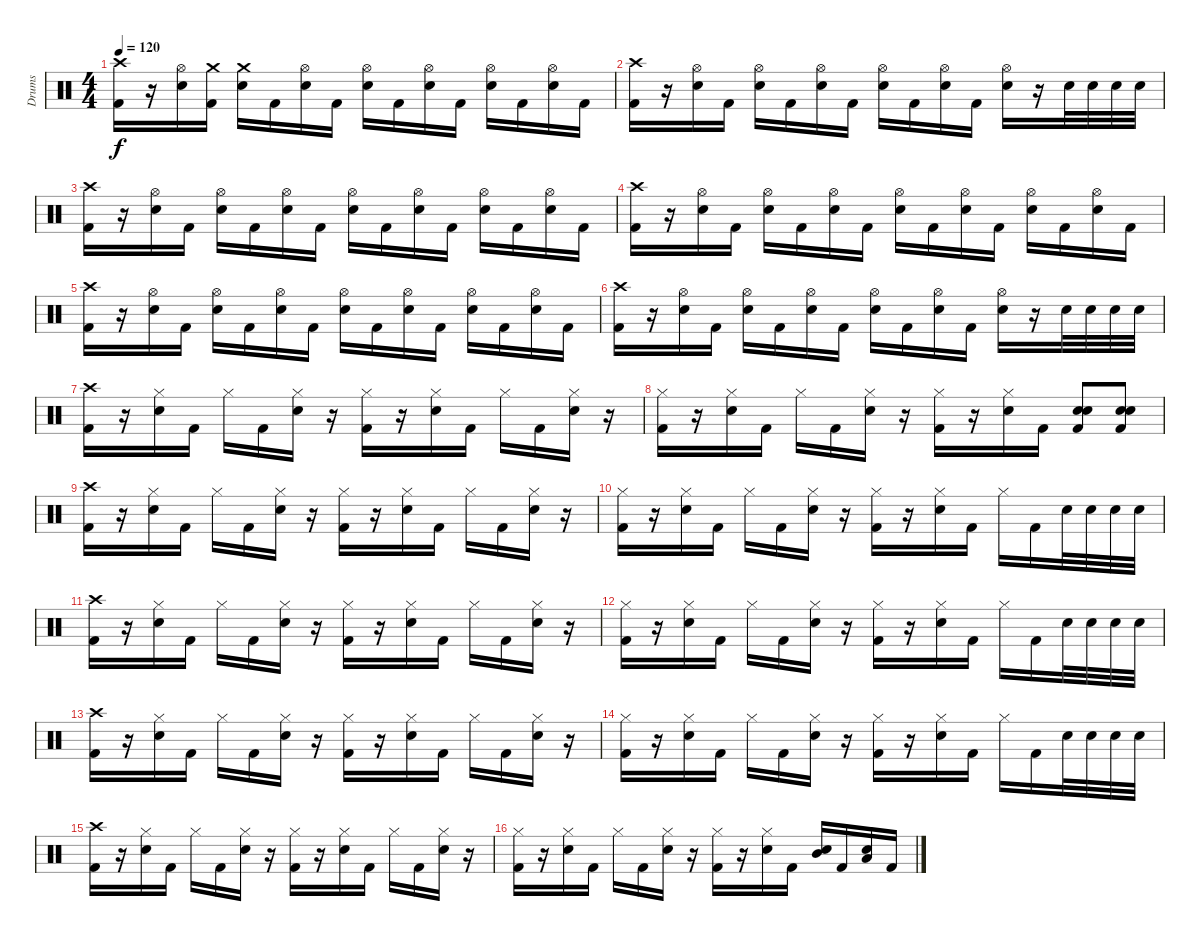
\track ("Drums" "Drums") {instrument percussion}
\staff {score}
\articulation defaults
\ts (4 4)
\tempo 120
\clef neutral
\ks c
("Crash high (hit)" "Kick (hit) 2").16{dy f} r.16 ("Hi-Hat (open)" "Snare (hit) 2").16 ("Crash medium (hit)" "Kick (hit) 2").16 ("Crash medium (hit)" "Snare (hit) 2").16 "Kick (hit) 2".16 ("Hi-Hat (open)" "Snare (hit) 2").16 "Kick (hit) 2".16 ("Hi-Hat (open)" "Snare (hit) 2").16 "Kick (hit) 2".16 ("Hi-Hat (open)" "Snare (hit) 2").16 "Kick (hit) 2".16 ("Hi-Hat (open)" "Snare (hit) 2").16 "Kick (hit) 2".16 ("Hi-Hat (open)" "Snare (hit) 2").16 "Kick (hit) 2".16 |
("Crash high (hit)" "Kick (hit) 2").16 r.16 ("Hi-Hat (open)" "Snare (hit) 2").16 "Kick (hit) 2".16 ("Hi-Hat (open)" "Snare (hit) 2").16 "Kick (hit) 2".16 ("Hi-Hat (open)" "Snare (hit) 2").16 "Kick (hit) 2".16 ("Hi-Hat (open)" "Snare (hit) 2").16 "Kick (hit) 2".16 ("Hi-Hat (open)" "Snare (hit) 2").16 "Kick (hit) 2".16 ("Hi-Hat (open)" "Snare (hit) 2").16 r.16 "Snare (hit) 2".32 "Snare (hit) 2".32 "Snare (hit) 2".32 "Snare (hit) 2".32 |
("Crash high (hit)" "Kick (hit) 2").16 r.16 ("Hi-Hat (open)" "Snare (hit) 2").16 "Kick (hit) 2".16 ("Hi-Hat (open)" "Snare (hit) 2").16 "Kick (hit) 2".16 ("Hi-Hat (open)" "Snare (hit) 2").16 "Kick (hit) 2".16 ("Hi-Hat (open)" "Snare (hit) 2").16 "Kick (hit) 2".16 ("Hi-Hat (open)" "Snare (hit) 2").16 "Kick (hit) 2".16 ("Hi-Hat (open)" "Snare (hit) 2").16 "Kick (hit) 2".16 ("Hi-Hat (open)" "Snare (hit) 2").16 "Kick (hit) 2".16 |
("Crash high (hit)" "Kick (hit) 2").16 r.16 ("Hi-Hat (open)" "Snare (hit) 2").16 "Kick (hit) 2".16 ("Hi-Hat (open)" "Snare (hit) 2").16 "Kick (hit) 2".16 ("Hi-Hat (open)" "Snare (hit) 2").16 "Kick (hit) 2".16 ("Hi-Hat (open)" "Snare (hit) 2").16 "Kick (hit) 2".16 ("Hi-Hat (open)" "Snare (hit) 2").16 "Kick (hit) 2".16 ("Hi-Hat (open)" "Snare (hit) 2").16 "Kick (hit) 2".16 ("Hi-Hat (open)" "Snare (hit) 2").16 "Kick (hit) 2".16 |
("Crash high (hit)" "Kick (hit) 2").16 r.16 ("Hi-Hat (open)" "Snare (hit) 2").16 "Kick (hit) 2".16 ("Hi-Hat (open)" "Snare (hit) 2").16 "Kick (hit) 2".16 ("Hi-Hat (open)" "Snare (hit) 2").16 "Kick (hit) 2".16 ("Hi-Hat (open)" "Snare (hit) 2").16 "Kick (hit) 2".16 ("Hi-Hat (open)" "Snare (hit) 2").16 "Kick (hit) 2".16 ("Hi-Hat (open)" "Snare (hit) 2").16 "Kick (hit) 2".16 ("Hi-Hat (open)" "Snare (hit) 2").16 "Kick (hit) 2".16 |
("Crash high (hit)" "Kick (hit) 2").16 r.16 ("Hi-Hat (open)" "Snare (hit) 2").16 "Kick (hit) 2".16 ("Hi-Hat (open)" "Snare (hit) 2").16 "Kick (hit) 2".16 ("Hi-Hat (open)" "Snare (hit) 2").16 "Kick (hit) 2".16 ("Hi-Hat (open)" "Snare (hit) 2").16 "Kick (hit) 2".16 ("Hi-Hat (open)" "Snare (hit) 2").16 "Kick (hit) 2".16 ("Hi-Hat (open)" "Snare (hit) 2").16 r.16 "Snare (hit) 2".32 "Snare (hit) 2".32 "Snare (hit) 2".32 "Snare (hit) 2".32 |
("Crash high (hit)" "Kick (hit) 2").16 r.16 ("Hi-Hat (closed)" "Snare (hit) 2").16 "Kick (hit) 2".16 "Hi-Hat (closed)".16 "Kick (hit) 2".16 ("Hi-Hat (closed)" "Snare (hit) 2").16 r.16 ("Hi-Hat (closed)" "Kick (hit) 2").16 r.16 ("Hi-Hat (closed)" "Snare (hit) 2").16 "Kick (hit) 2".16 "Hi-Hat (closed)".16 "Kick (hit) 2".16 ("Hi-Hat (closed)" "Snare (hit) 2").16 r.16 |
("Hi-Hat (closed)" "Kick (hit) 2").16 r.16 ("Hi-Hat (closed)" "Snare (hit) 2").16 "Kick (hit) 2".16 "Hi-Hat (closed)".16 "Kick (hit) 2".16 ("Hi-Hat (closed)" "Snare (hit) 2").16 r.16 ("Hi-Hat (closed)" "Kick (hit) 2").16 r.16 ("Hi-Hat (closed)" "Snare (hit) 2").16 "Kick (hit) 2".16 ("Kick (hit) 2" "Snare (hit) 2" "Snare (hit) 2").8 ("Kick (hit) 2" "Snare (hit) 2" "Snare (hit) 2").8 |
("Crash high (hit)" "Kick (hit) 2").16 r.16 ("Hi-Hat (closed)" "Snare (hit) 2").16 "Kick (hit) 2".16 "Hi-Hat (closed)".16 "Kick (hit) 2".16 ("Hi-Hat (closed)" "Snare (hit) 2").16 r.16 ("Hi-Hat (closed)" "Kick (hit) 2").16 r.16 ("Hi-Hat (closed)" "Snare (hit) 2").16 "Kick (hit) 2".16 "Hi-Hat (closed)".16 "Kick (hit) 2".16 ("Hi-Hat (closed)" "Snare (hit) 2").16 r.16 |
("Hi-Hat (closed)" "Kick (hit) 2").16 r.16 ("Hi-Hat (closed)" "Snare (hit) 2").16 "Kick (hit) 2".16 "Hi-Hat (closed)".16 "Kick (hit) 2".16 ("Hi-Hat (closed)" "Snare (hit) 2").16 r.16 ("Hi-Hat (closed)" "Kick (hit) 2").16 r.16 ("Hi-Hat (closed)" "Snare (hit) 2").16 "Kick (hit) 2".16 "Hi-Hat (closed)".16 "Kick (hit) 2".16 "Snare (hit) 2".32 "Snare (hit) 2".32 "Snare (hit) 2".32 "Snare (hit) 2".32 |
("Crash high (hit)" "Kick (hit) 2").16 r.16 ("Hi-Hat (closed)" "Snare (hit) 2").16 "Kick (hit) 2".16 "Hi-Hat (closed)".16 "Kick (hit) 2".16 ("Hi-Hat (closed)" "Snare (hit) 2").16 r.16 ("Hi-Hat (closed)" "Kick (hit) 2").16 r.16 ("Hi-Hat (closed)" "Snare (hit) 2").16 "Kick (hit) 2".16 "Hi-Hat (closed)".16 "Kick (hit) 2".16 ("Hi-Hat (closed)" "Snare (hit) 2").16 r.16 |
("Hi-Hat (closed)" "Kick (hit) 2").16 r.16 ("Hi-Hat (closed)" "Snare (hit) 2").16 "Kick (hit) 2".16 "Hi-Hat (closed)".16 "Kick (hit) 2".16 ("Hi-Hat (closed)" "Snare (hit) 2").16 r.16 ("Hi-Hat (closed)" "Kick (hit) 2").16 r.16 ("Hi-Hat (closed)" "Snare (hit) 2").16 "Kick (hit) 2".16 "Hi-Hat (closed)".16 "Kick (hit) 2".16 "Snare (hit) 2".32 "Snare (hit) 2".32 "Snare (hit) 2".32 "Snare (hit) 2".32 |
("Crash high (hit)" "Kick (hit) 2").16 r.16 ("Hi-Hat (closed)" "Snare (hit) 2").16 "Kick (hit) 2".16 "Hi-Hat (closed)".16 "Kick (hit) 2".16 ("Hi-Hat (closed)" "Snare (hit) 2").16 r.16 ("Hi-Hat (closed)" "Kick (hit) 2").16 r.16 ("Hi-Hat (closed)" "Snare (hit) 2").16 "Kick (hit) 2".16 "Hi-Hat (closed)".16 "Kick (hit) 2".16 ("Hi-Hat (closed)" "Snare (hit) 2").16 r.16 |
("Hi-Hat (closed)" "Kick (hit) 2").16 r.16 ("Hi-Hat (closed)" "Snare (hit) 2").16 "Kick (hit) 2".16 "Hi-Hat (closed)".16 "Kick (hit) 2".16 ("Hi-Hat (closed)" "Snare (hit) 2").16 r.16 ("Hi-Hat (closed)" "Kick (hit) 2").16 r.16 ("Hi-Hat (closed)" "Snare (hit) 2").16 "Kick (hit) 2".16 "Hi-Hat (closed)".16 "Kick (hit) 2".16 "Snare (hit) 2".32 "Snare (hit) 2".32 "Snare (hit) 2".32 "Snare (hit) 2".32 |
("Crash high (hit)" "Kick (hit) 2").16 r.16 ("Hi-Hat (closed)" "Snare (hit) 2").16 "Kick (hit) 2".16 "Hi-Hat (closed)".16 "Kick (hit) 2".16 ("Hi-Hat (closed)" "Snare (hit) 2").16 r.16 ("Hi-Hat (closed)" "Kick (hit) 2").16 r.16 ("Hi-Hat (closed)" "Snare (hit) 2").16 "Kick (hit) 2".16 "Hi-Hat (closed)".16 "Kick (hit) 2".16 ("Hi-Hat (closed)" "Snare (hit) 2").16 r.16 |
("Hi-Hat (closed)" "Kick (hit) 2").16 r.16 ("Hi-Hat (closed)" "Snare (hit) 2").16 "Kick (hit) 2".16 "Hi-Hat (closed)".16 "Kick (hit) 2".16 ("Hi-Hat (closed)" "Snare (hit) 2").16 r.16 ("Hi-Hat (closed)" "Kick (hit) 2").16 r.16 ("Hi-Hat (closed)" "Snare (hit) 2").16 "Kick (hit) 2".16 ("Mid Tom (hit)" "Snare (hit) 2").16 "Kick (hit) 2".16 ("Low Tom (hit)" "Snare (hit) 2").16 "Kick (hit) 2".16
